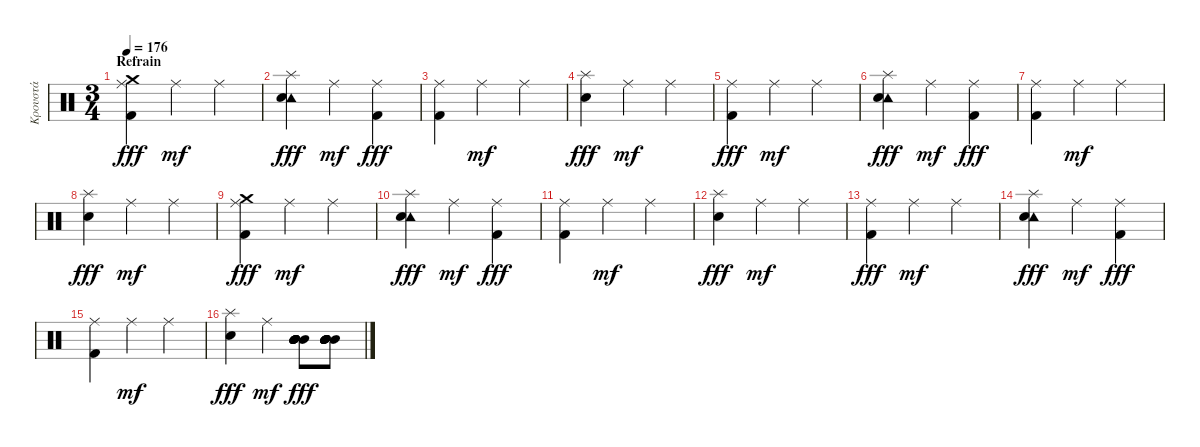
\track ("Κρουστά" "Κρουστά") {instrument percussion}
\staff {score}
\articulation defaults
\ts (3 4)
\section ("" "Refrain")
\tempo 176
\clef neutral
\ks c
("Crash medium (hit)" "Ride (middle)" "Kick (hit) 2").4{dy fff} "Ride (middle)".4{dy mf} "Ride (middle)".4 |
("Splash (hit)" "Tambourine (hit)" "Snare (hit) 2").4{dy fff} "Ride (middle)".4{dy mf} ("Ride (middle)" "Kick (hit) 2").4{dy fff} |
("Ride (middle)" "Kick (hit) 2").4 "Ride (middle)".4{dy mf} "Ride (middle)".4 |
("Splash (hit)" "Snare (hit) 2").4{dy fff} "Ride (middle)".4{dy mf} "Ride (middle)".4 |
("Ride (middle)" "Kick (hit) 2").4{dy fff} "Ride (middle)".4{dy mf} "Ride (middle)".4 |
("Splash (hit)" "Tambourine (hit)" "Snare (hit) 2").4{dy fff} "Ride (middle)".4{dy mf} ("Ride (middle)" "Kick (hit) 2").4{dy fff} |
("Ride (middle)" "Kick (hit) 2").4 "Ride (middle)".4{dy mf} "Ride (middle)".4 |
("Splash (hit)" "Snare (hit) 2").4{dy fff} "Ride (middle)".4{dy mf} "Ride (middle)".4 |
("Crash medium (hit)" "Ride (middle)" "Kick (hit) 2").4{dy fff} "Ride (middle)".4{dy mf} "Ride (middle)".4 |
("Splash (hit)" "Tambourine (hit)" "Snare (hit) 2").4{dy fff} "Ride (middle)".4{dy mf} ("Ride (middle)" "Kick (hit) 2").4{dy fff} |
("Ride (middle)" "Kick (hit) 2").4 "Ride (middle)".4{dy mf} "Ride (middle)".4 |
("Splash (hit)" "Snare (hit) 2").4{dy fff} "Ride (middle)".4{dy mf} "Ride (middle)".4 |
("Ride (middle)" "Kick (hit) 2").4{dy fff} "Ride (middle)".4{dy mf} "Ride (middle)".4 |
("Splash (hit)" "Tambourine (hit)" "Snare (hit) 2").4{dy fff} "Ride (middle)".4{dy mf} ("Ride (middle)" "Kick (hit) 2").4{dy fff} |
("Ride (middle)" "Kick (hit) 2").4 "Ride (middle)".4{dy mf} "Ride (middle)".4 |
("Splash (hit)" "Snare (hit) 2").4{dy fff} "Ride (middle)".4{dy mf} ("Mid Tom (hit)" "Mid Tom (hit)" "Mid Tom (hit)" "Mid Tom (hit)" "Mid Tom (hit)" "Mid Tom (hit)").8{dy fff} ("Mid Tom (hit)" "Mid Tom (hit)" "Mid Tom (hit)" "Mid Tom (hit)" "Mid Tom (hit)" "Mid Tom (hit)").8
